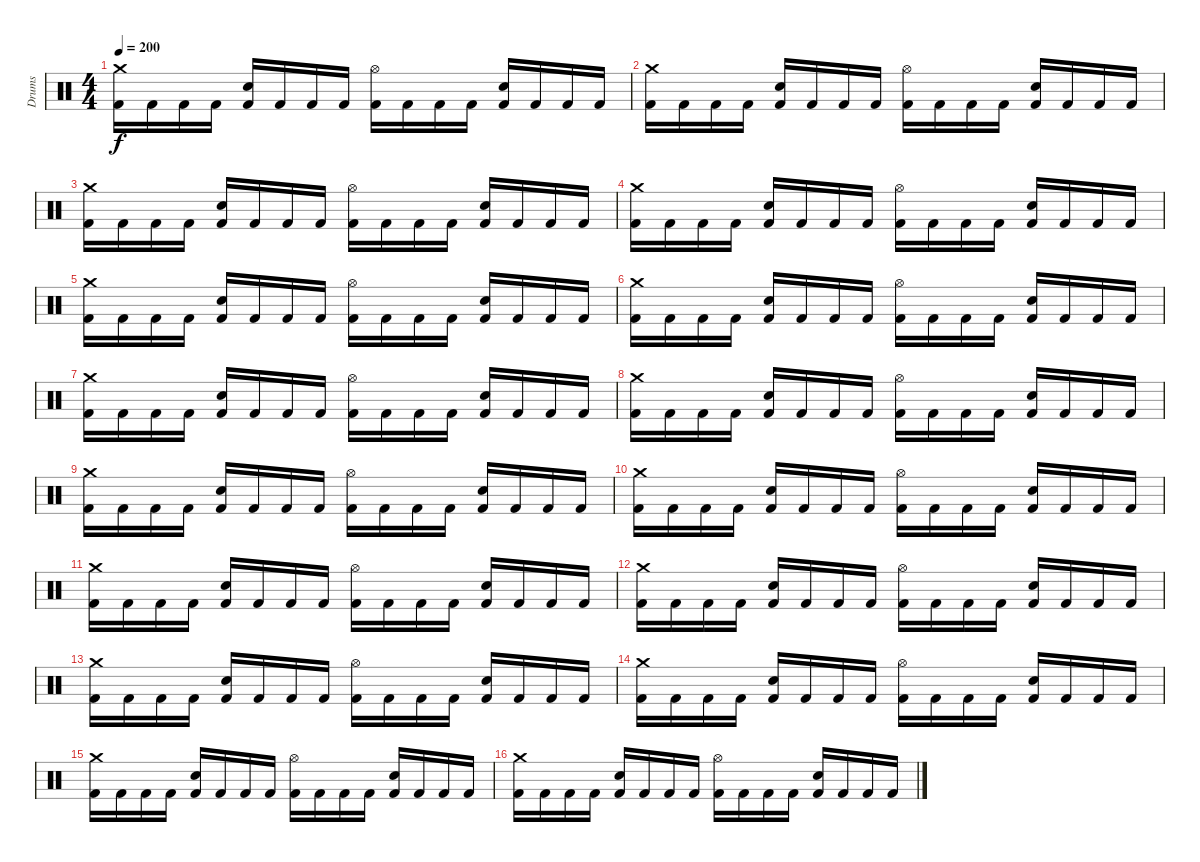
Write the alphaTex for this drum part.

\track ("Drums" "Drums") {instrument percussion}
\staff {score}
\articulation defaults
\ts (4 4)
\tempo 200
\clef neutral
\ks c
("Kick (hit) 2" "Crash medium (hit)").16{dy f} "Kick (hit) 2".16 "Kick (hit) 2".16 "Kick (hit) 2".16 ("Kick (hit) 2" "Snare (hit) 2").16 "Kick (hit) 2".16 "Kick (hit) 2".16 "Kick (hit) 2".16 ("Kick (hit) 2" "Hi-Hat (open)").16 "Kick (hit) 2".16 "Kick (hit) 2".16 "Kick (hit) 2".16 ("Kick (hit) 2" "Snare (hit) 2").16 "Kick (hit) 2".16 "Kick (hit) 2".16 "Kick (hit) 2".16 |
("Kick (hit) 2" "Crash medium (hit)").16 "Kick (hit) 2".16 "Kick (hit) 2".16 "Kick (hit) 2".16 ("Kick (hit) 2" "Snare (hit) 2").16 "Kick (hit) 2".16 "Kick (hit) 2".16 "Kick (hit) 2".16 ("Kick (hit) 2" "Hi-Hat (open)").16 "Kick (hit) 2".16 "Kick (hit) 2".16 "Kick (hit) 2".16 ("Kick (hit) 2" "Snare (hit) 2").16 "Kick (hit) 2".16 "Kick (hit) 2".16 "Kick (hit) 2".16 |
("Kick (hit) 2" "Crash medium (hit)").16 "Kick (hit) 2".16 "Kick (hit) 2".16 "Kick (hit) 2".16 ("Kick (hit) 2" "Snare (hit) 2").16 "Kick (hit) 2".16 "Kick (hit) 2".16 "Kick (hit) 2".16 ("Kick (hit) 2" "Hi-Hat (open)").16 "Kick (hit) 2".16 "Kick (hit) 2".16 "Kick (hit) 2".16 ("Kick (hit) 2" "Snare (hit) 2").16 "Kick (hit) 2".16 "Kick (hit) 2".16 "Kick (hit) 2".16 |
("Kick (hit) 2" "Crash medium (hit)").16 "Kick (hit) 2".16 "Kick (hit) 2".16 "Kick (hit) 2".16 ("Kick (hit) 2" "Snare (hit) 2").16 "Kick (hit) 2".16 "Kick (hit) 2".16 "Kick (hit) 2".16 ("Kick (hit) 2" "Hi-Hat (open)").16 "Kick (hit) 2".16 "Kick (hit) 2".16 "Kick (hit) 2".16 ("Kick (hit) 2" "Snare (hit) 2").16 "Kick (hit) 2".16 "Kick (hit) 2".16 "Kick (hit) 2".16 |
("Kick (hit) 2" "Crash medium (hit)").16 "Kick (hit) 2".16 "Kick (hit) 2".16 "Kick (hit) 2".16 ("Kick (hit) 2" "Snare (hit) 2").16 "Kick (hit) 2".16 "Kick (hit) 2".16 "Kick (hit) 2".16 ("Kick (hit) 2" "Hi-Hat (open)").16 "Kick (hit) 2".16 "Kick (hit) 2".16 "Kick (hit) 2".16 ("Kick (hit) 2" "Snare (hit) 2").16 "Kick (hit) 2".16 "Kick (hit) 2".16 "Kick (hit) 2".16 |
("Kick (hit) 2" "Crash medium (hit)").16 "Kick (hit) 2".16 "Kick (hit) 2".16 "Kick (hit) 2".16 ("Kick (hit) 2" "Snare (hit) 2").16 "Kick (hit) 2".16 "Kick (hit) 2".16 "Kick (hit) 2".16 ("Kick (hit) 2" "Hi-Hat (open)").16 "Kick (hit) 2".16 "Kick (hit) 2".16 "Kick (hit) 2".16 ("Kick (hit) 2" "Snare (hit) 2").16 "Kick (hit) 2".16 "Kick (hit) 2".16 "Kick (hit) 2".16 |
("Kick (hit) 2" "Crash medium (hit)").16 "Kick (hit) 2".16 "Kick (hit) 2".16 "Kick (hit) 2".16 ("Kick (hit) 2" "Snare (hit) 2").16 "Kick (hit) 2".16 "Kick (hit) 2".16 "Kick (hit) 2".16 ("Kick (hit) 2" "Hi-Hat (open)").16 "Kick (hit) 2".16 "Kick (hit) 2".16 "Kick (hit) 2".16 ("Kick (hit) 2" "Snare (hit) 2").16 "Kick (hit) 2".16 "Kick (hit) 2".16 "Kick (hit) 2".16 |
("Kick (hit) 2" "Crash medium (hit)").16 "Kick (hit) 2".16 "Kick (hit) 2".16 "Kick (hit) 2".16 ("Kick (hit) 2" "Snare (hit) 2").16 "Kick (hit) 2".16 "Kick (hit) 2".16 "Kick (hit) 2".16 ("Kick (hit) 2" "Hi-Hat (open)").16 "Kick (hit) 2".16 "Kick (hit) 2".16 "Kick (hit) 2".16 ("Kick (hit) 2" "Snare (hit) 2").16 "Kick (hit) 2".16 "Kick (hit) 2".16 "Kick (hit) 2".16 |
("Kick (hit) 2" "Crash medium (hit)").16 "Kick (hit) 2".16 "Kick (hit) 2".16 "Kick (hit) 2".16 ("Kick (hit) 2" "Snare (hit) 2").16 "Kick (hit) 2".16 "Kick (hit) 2".16 "Kick (hit) 2".16 ("Kick (hit) 2" "Hi-Hat (open)").16 "Kick (hit) 2".16 "Kick (hit) 2".16 "Kick (hit) 2".16 ("Kick (hit) 2" "Snare (hit) 2").16 "Kick (hit) 2".16 "Kick (hit) 2".16 "Kick (hit) 2".16 |
("Kick (hit) 2" "Crash medium (hit)").16 "Kick (hit) 2".16 "Kick (hit) 2".16 "Kick (hit) 2".16 ("Kick (hit) 2" "Snare (hit) 2").16 "Kick (hit) 2".16 "Kick (hit) 2".16 "Kick (hit) 2".16 ("Kick (hit) 2" "Hi-Hat (open)").16 "Kick (hit) 2".16 "Kick (hit) 2".16 "Kick (hit) 2".16 ("Kick (hit) 2" "Snare (hit) 2").16 "Kick (hit) 2".16 "Kick (hit) 2".16 "Kick (hit) 2".16 |
("Kick (hit) 2" "Crash medium (hit)").16 "Kick (hit) 2".16 "Kick (hit) 2".16 "Kick (hit) 2".16 ("Kick (hit) 2" "Snare (hit) 2").16 "Kick (hit) 2".16 "Kick (hit) 2".16 "Kick (hit) 2".16 ("Kick (hit) 2" "Hi-Hat (open)").16 "Kick (hit) 2".16 "Kick (hit) 2".16 "Kick (hit) 2".16 ("Kick (hit) 2" "Snare (hit) 2").16 "Kick (hit) 2".16 "Kick (hit) 2".16 "Kick (hit) 2".16 |
("Kick (hit) 2" "Crash medium (hit)").16 "Kick (hit) 2".16 "Kick (hit) 2".16 "Kick (hit) 2".16 ("Kick (hit) 2" "Snare (hit) 2").16 "Kick (hit) 2".16 "Kick (hit) 2".16 "Kick (hit) 2".16 ("Kick (hit) 2" "Hi-Hat (open)").16 "Kick (hit) 2".16 "Kick (hit) 2".16 "Kick (hit) 2".16 ("Kick (hit) 2" "Snare (hit) 2").16 "Kick (hit) 2".16 "Kick (hit) 2".16 "Kick (hit) 2".16 |
("Kick (hit) 2" "Crash medium (hit)").16 "Kick (hit) 2".16 "Kick (hit) 2".16 "Kick (hit) 2".16 ("Kick (hit) 2" "Snare (hit) 2").16 "Kick (hit) 2".16 "Kick (hit) 2".16 "Kick (hit) 2".16 ("Kick (hit) 2" "Hi-Hat (open)").16 "Kick (hit) 2".16 "Kick (hit) 2".16 "Kick (hit) 2".16 ("Kick (hit) 2" "Snare (hit) 2").16 "Kick (hit) 2".16 "Kick (hit) 2".16 "Kick (hit) 2".16 |
("Kick (hit) 2" "Crash medium (hit)").16 "Kick (hit) 2".16 "Kick (hit) 2".16 "Kick (hit) 2".16 ("Kick (hit) 2" "Snare (hit) 2").16 "Kick (hit) 2".16 "Kick (hit) 2".16 "Kick (hit) 2".16 ("Kick (hit) 2" "Hi-Hat (open)").16 "Kick (hit) 2".16 "Kick (hit) 2".16 "Kick (hit) 2".16 ("Kick (hit) 2" "Snare (hit) 2").16 "Kick (hit) 2".16 "Kick (hit) 2".16 "Kick (hit) 2".16 |
("Kick (hit) 2" "Crash medium (hit)").16 "Kick (hit) 2".16 "Kick (hit) 2".16 "Kick (hit) 2".16 ("Kick (hit) 2" "Snare (hit) 2").16 "Kick (hit) 2".16 "Kick (hit) 2".16 "Kick (hit) 2".16 ("Kick (hit) 2" "Hi-Hat (open)").16 "Kick (hit) 2".16 "Kick (hit) 2".16 "Kick (hit) 2".16 ("Kick (hit) 2" "Snare (hit) 2").16 "Kick (hit) 2".16 "Kick (hit) 2".16 "Kick (hit) 2".16 |
("Kick (hit) 2" "Crash medium (hit)").16 "Kick (hit) 2".16 "Kick (hit) 2".16 "Kick (hit) 2".16 ("Kick (hit) 2" "Snare (hit) 2").16 "Kick (hit) 2".16 "Kick (hit) 2".16 "Kick (hit) 2".16 ("Kick (hit) 2" "Hi-Hat (open)").16 "Kick (hit) 2".16 "Kick (hit) 2".16 "Kick (hit) 2".16 ("Kick (hit) 2" "Snare (hit) 2").16 "Kick (hit) 2".16 "Kick (hit) 2".16 "Kick (hit) 2".16
